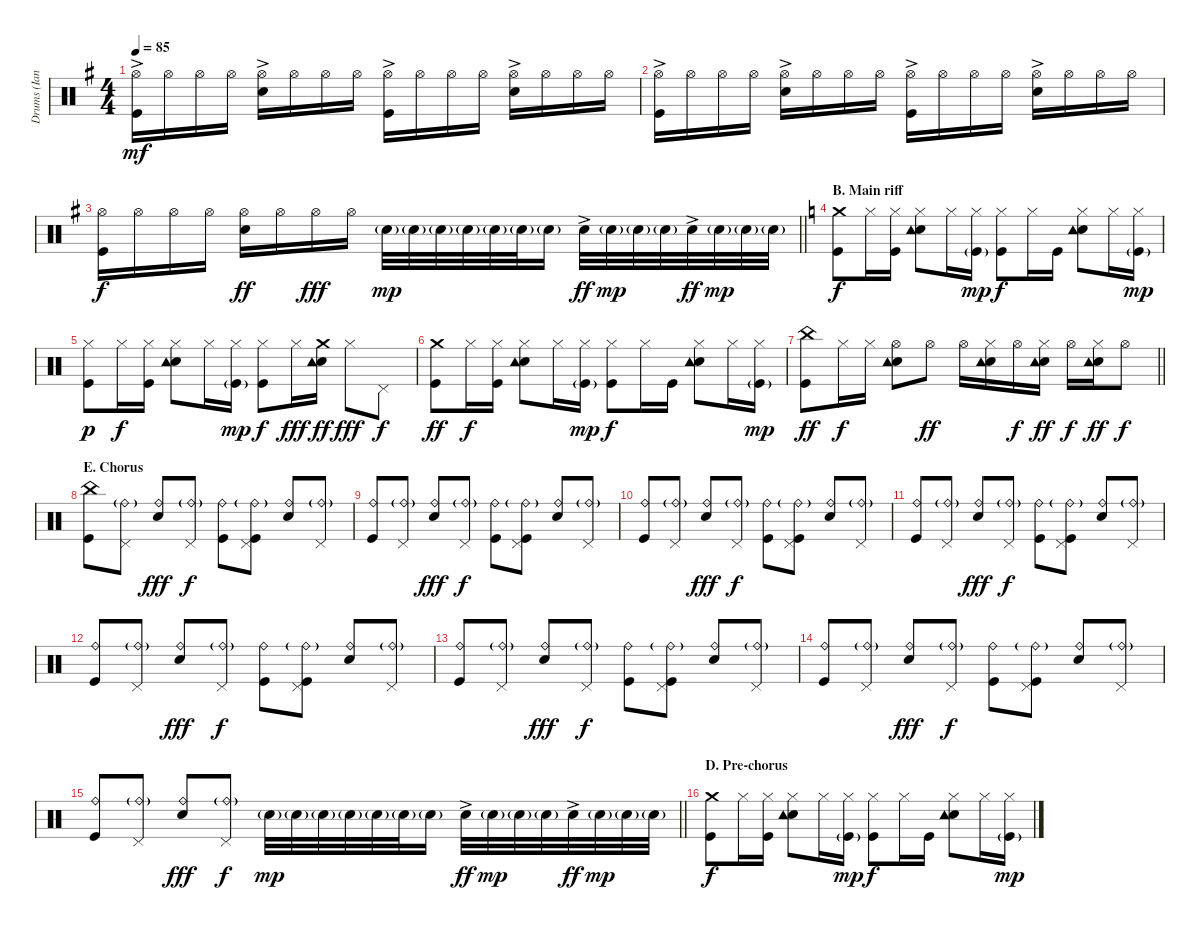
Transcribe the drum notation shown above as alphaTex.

\track ("Drums (Ian Paice)" "Drums (Ian") {instrument percussion}
\staff {score}
\articulation defaults
\ts (4 4)
\tempo 85
\clef neutral
\ks eminor
("Hi-Hat (open)"{ac} "Kick (hit)").16{dy mf} "Hi-Hat (open)".16 "Hi-Hat (open)".16 "Hi-Hat (open)".16 ("Hi-Hat (open)"{ac} "Electric Snare (hit)").16 "Hi-Hat (open)".16 "Hi-Hat (open)".16 "Hi-Hat (open)".16 ("Hi-Hat (open)"{ac} "Kick (hit)").16 "Hi-Hat (open)".16 "Hi-Hat (open)".16 "Hi-Hat (open)".16 ("Hi-Hat (open)"{ac} "Electric Snare (hit)").16 "Hi-Hat (open)".16 "Hi-Hat (open)".16 "Hi-Hat (open)".16 |
("Hi-Hat (open)"{ac} "Kick (hit)").16 "Hi-Hat (open)".16 "Hi-Hat (open)".16 "Hi-Hat (open)".16 ("Hi-Hat (open)"{ac} "Electric Snare (hit)").16 "Hi-Hat (open)".16 "Hi-Hat (open)".16 "Hi-Hat (open)".16 ("Hi-Hat (open)"{ac} "Kick (hit)").16 "Hi-Hat (open)".16 "Hi-Hat (open)".16 "Hi-Hat (open)".16 ("Hi-Hat (open)"{ac} "Electric Snare (hit)").16 "Hi-Hat (open)".16 "Hi-Hat (open)".16 "Hi-Hat (open)".16 |
\barLineRight lightlight
("Hi-Hat (open)" "Kick (hit)").16{dy f} "Hi-Hat (open)".16 "Hi-Hat (open)".16 "Hi-Hat (open)".16 ("Hi-Hat (open)" "Electric Snare (hit)").16{dy ff} "Hi-Hat (open)".16 "Hi-Hat (open)".16{dy fff} "Hi-Hat (open)".16 "Electric Snare (hit)"{g}.32{dy mp} "Electric Snare (hit)"{g}.32 "Electric Snare (hit)"{g}.32 "Electric Snare (hit)"{g}.32 "Electric Snare (hit)"{g}.32 "Electric Snare (hit)"{g}.32 "Electric Snare (hit)"{g}.16 "Electric Snare (hit)"{ac}.32{dy ff} "Electric Snare (hit)"{g}.32{dy mp} "Electric Snare (hit)"{g}.32 "Electric Snare (hit)"{g}.32 "Electric Snare (hit)"{ac}.32{dy ff} "Electric Snare (hit)"{g}.32{dy mp} "Electric Snare (hit)"{g}.32 "Electric Snare (hit)"{g}.32 |
\section ("" "B. Main riff")
\ks aminor
("Crash medium (hit)" "Kick (hit)").8{dy f} "Hi-Hat (closed)".16 ("Hi-Hat (closed)" "Kick (hit)").16 ("Hi-Hat (closed)" "Electric Snare (hit)" "Tambourine (hit)").8 "Hi-Hat (closed)".16 ("Hi-Hat (closed)" "Kick (hit)"{g}).16{dy mp} ("Hi-Hat (closed)" "Kick (hit)").8{dy f} "Hi-Hat (closed)".16 "Kick (hit)".16 ("Hi-Hat (closed)" "Electric Snare (hit)" "Tambourine (hit)").8 "Hi-Hat (closed)".16 ("Hi-Hat (closed)" "Kick (hit)"{g}).16{dy mp} |
("Hi-Hat (closed)" "Kick (hit)").8{dy p} "Hi-Hat (closed)".16{dy f} ("Hi-Hat (closed)" "Kick (hit)").16 ("Hi-Hat (closed)" "Electric Snare (hit)" "Tambourine (hit)").8 "Hi-Hat (closed)".16 ("Hi-Hat (closed)" "Kick (hit)"{g}).16{dy mp} ("Hi-Hat (closed)" "Kick (hit)").8{dy f} "Hi-Hat (closed)".16{dy fff} ("Crash medium (hit)" "Electric Snare (hit)" "Tambourine (hit)").16{dy ff} "Hi-Hat (closed)".8{dy fff} "Pedal Hi-Hat (hit)".8{dy f} |
("Crash medium (hit)" "Kick (hit)").8{dy ff} "Hi-Hat (closed)".16{dy f} ("Hi-Hat (closed)" "Kick (hit)").16 ("Hi-Hat (closed)" "Electric Snare (hit)" "Tambourine (hit)").8 "Hi-Hat (closed)".16 ("Hi-Hat (closed)" "Kick (hit)"{g}).16{dy mp} ("Hi-Hat (closed)" "Kick (hit)").8{dy f} "Hi-Hat (closed)".16 "Kick (hit)".16 ("Hi-Hat (closed)" "Electric Snare (hit)" "Tambourine (hit)").8 "Hi-Hat (closed)".16 ("Hi-Hat (closed)" "Kick (hit)"{g}).16{dy mp} |
\barLineRight lightlight
("China (hit)" "Kick (hit)").8{dy ff} "Hi-Hat (closed)".16{dy f} "Hi-Hat (closed)".16 ("Hi-Hat (open)" "Electric Snare (hit)" "Tambourine (hit)").8 "Hi-Hat (open)".8{dy ff} "Hi-Hat (open)".16 ("Hi-Hat (closed)" "Electric Snare (hit)" "Tambourine (hit)").16 "Hi-Hat (open)".16{dy f} ("Hi-Hat (closed)" "Electric Snare (hit)" "Tambourine (hit)").16{dy ff} "Hi-Hat (open)".16{dy f} ("Hi-Hat (closed)" "Electric Snare (hit)" "Tambourine (hit)").16{dy ff} "Hi-Hat (open)".8{dy f} |
\section ("" "E. Chorus")
("China (hit)" "Kick (hit)").8 ("Ride (bell)"{g} "Pedal Hi-Hat (hit)").8 ("Ride (bell)" "Electric Snare (hit)").8{dy fff} ("Ride (bell)"{g} "Pedal Hi-Hat (hit)").8{dy f} ("Ride (bell)" "Kick (hit)").8 ("Ride (bell)"{g} "Pedal Hi-Hat (hit)" "Kick (hit)").8 ("Ride (bell)" "Electric Snare (hit)").8 ("Ride (bell)"{g} "Pedal Hi-Hat (hit)").8 |
("Ride (bell)" "Kick (hit)").8 ("Ride (bell)"{g} "Pedal Hi-Hat (hit)").8 ("Ride (bell)" "Electric Snare (hit)").8{dy fff} ("Ride (bell)"{g} "Pedal Hi-Hat (hit)").8{dy f} ("Ride (bell)" "Kick (hit)").8 ("Ride (bell)"{g} "Pedal Hi-Hat (hit)" "Kick (hit)").8 ("Ride (bell)" "Electric Snare (hit)").8 ("Ride (bell)"{g} "Pedal Hi-Hat (hit)").8 |
("Ride (bell)" "Kick (hit)").8 ("Ride (bell)"{g} "Pedal Hi-Hat (hit)").8 ("Ride (bell)" "Electric Snare (hit)").8{dy fff} ("Ride (bell)"{g} "Pedal Hi-Hat (hit)").8{dy f} ("Ride (bell)" "Kick (hit)").8 ("Ride (bell)"{g} "Pedal Hi-Hat (hit)" "Kick (hit)").8 ("Ride (bell)" "Electric Snare (hit)").8 ("Ride (bell)"{g} "Pedal Hi-Hat (hit)").8 |
("Ride (bell)" "Kick (hit)").8 ("Ride (bell)"{g} "Pedal Hi-Hat (hit)").8 ("Ride (bell)" "Electric Snare (hit)").8{dy fff} ("Ride (bell)"{g} "Pedal Hi-Hat (hit)").8{dy f} ("Ride (bell)" "Kick (hit)").8 ("Ride (bell)"{g} "Pedal Hi-Hat (hit)" "Kick (hit)").8 ("Ride (bell)" "Electric Snare (hit)").8 ("Ride (bell)"{g} "Pedal Hi-Hat (hit)").8 |
("Ride (bell)" "Kick (hit)").8 ("Ride (bell)"{g} "Pedal Hi-Hat (hit)").8 ("Ride (bell)" "Electric Snare (hit)").8{dy fff} ("Ride (bell)"{g} "Pedal Hi-Hat (hit)").8{dy f} ("Ride (bell)" "Kick (hit)").8 ("Ride (bell)"{g} "Pedal Hi-Hat (hit)" "Kick (hit)").8 ("Ride (bell)" "Electric Snare (hit)").8 ("Ride (bell)"{g} "Pedal Hi-Hat (hit)").8 |
("Ride (bell)" "Kick (hit)").8 ("Ride (bell)"{g} "Pedal Hi-Hat (hit)").8 ("Ride (bell)" "Electric Snare (hit)").8{dy fff} ("Ride (bell)"{g} "Pedal Hi-Hat (hit)").8{dy f} ("Ride (bell)" "Kick (hit)").8 ("Ride (bell)"{g} "Pedal Hi-Hat (hit)" "Kick (hit)").8 ("Ride (bell)" "Electric Snare (hit)").8 ("Ride (bell)"{g} "Pedal Hi-Hat (hit)").8 |
("Ride (bell)" "Kick (hit)").8 ("Ride (bell)"{g} "Pedal Hi-Hat (hit)").8 ("Ride (bell)" "Electric Snare (hit)").8{dy fff} ("Ride (bell)"{g} "Pedal Hi-Hat (hit)").8{dy f} ("Ride (bell)" "Kick (hit)").8 ("Ride (bell)"{g} "Pedal Hi-Hat (hit)" "Kick (hit)").8 ("Ride (bell)" "Electric Snare (hit)").8 ("Ride (bell)"{g} "Pedal Hi-Hat (hit)").8 |
\barLineRight lightlight
("Ride (bell)" "Kick (hit)").8 ("Ride (bell)"{g} "Pedal Hi-Hat (hit)").8 ("Ride (bell)" "Electric Snare (hit)").8{dy fff} ("Ride (bell)"{g} "Pedal Hi-Hat (hit)").8{dy f} "Electric Snare (hit)"{g}.32{dy mp} "Electric Snare (hit)"{g}.32 "Electric Snare (hit)"{g}.32 "Electric Snare (hit)"{g}.32 "Electric Snare (hit)"{g}.32 "Electric Snare (hit)"{g}.32 "Electric Snare (hit)"{g}.16 "Electric Snare (hit)"{ac}.32{dy ff} "Electric Snare (hit)"{g}.32{dy mp} "Electric Snare (hit)"{g}.32 "Electric Snare (hit)"{g}.32 "Electric Snare (hit)"{ac}.32{dy ff} "Electric Snare (hit)"{g}.32{dy mp} "Electric Snare (hit)"{g}.32 "Electric Snare (hit)"{g}.32 |
\section ("" "D. Pre-chorus")
("Crash medium (hit)" "Kick (hit)").8{dy f} "Hi-Hat (closed)".16 ("Hi-Hat (closed)" "Kick (hit)").16 ("Hi-Hat (closed)" "Electric Snare (hit)" "Tambourine (hit)").8 "Hi-Hat (closed)".16 ("Hi-Hat (closed)" "Kick (hit)"{g}).16{dy mp} ("Hi-Hat (closed)" "Kick (hit)").8{dy f} "Hi-Hat (closed)".16 "Kick (hit)".16 ("Hi-Hat (closed)" "Electric Snare (hit)" "Tambourine (hit)").8 "Hi-Hat (closed)".16 ("Hi-Hat (closed)" "Kick (hit)"{g}).16{dy mp}
